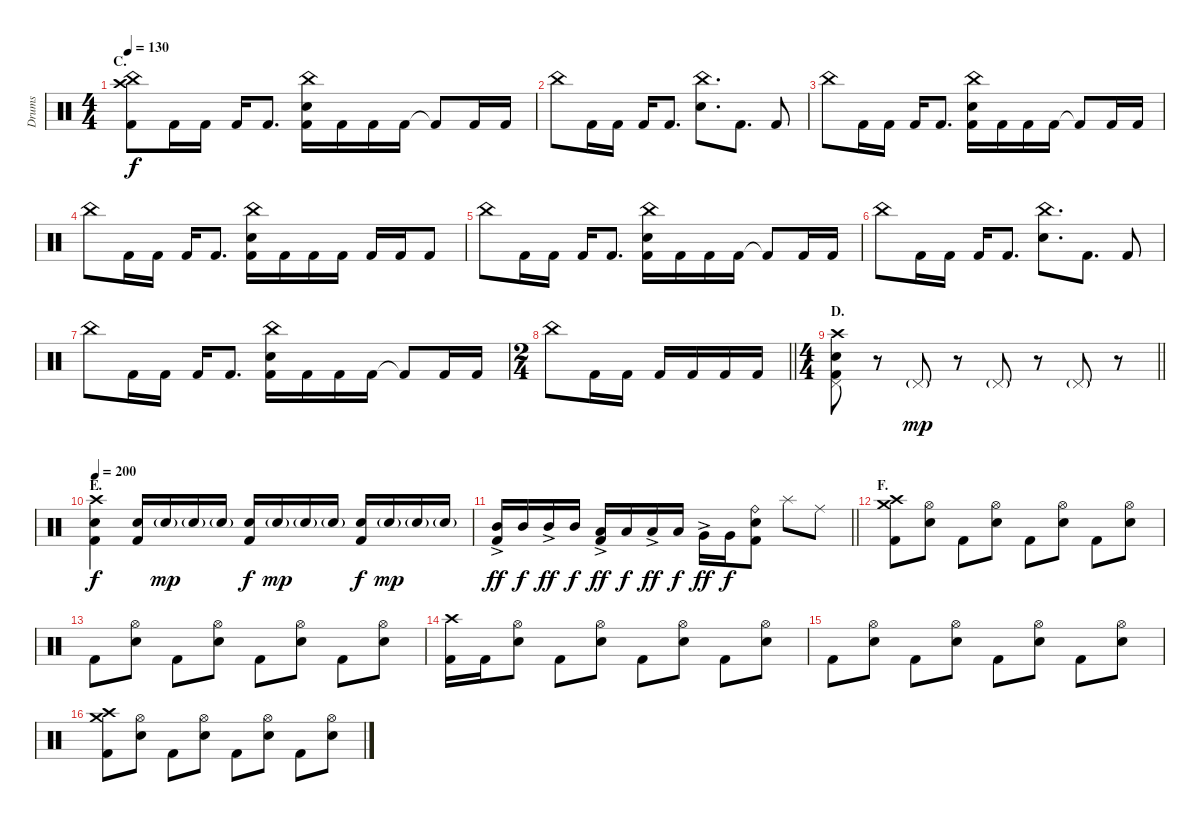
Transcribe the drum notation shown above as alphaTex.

\track ("Drums" "Drums") {instrument percussion}
\staff {score}
\articulation defaults
\ts (4 4)
\section ("" "C.")
\tempo 130
\clef neutral
\ks c
("China (hit)" "Crash high (hit)" "Kick (hit) 2").8{dy f} "Kick (hit) 2".16 "Kick (hit) 2".16 "Kick (hit) 2".16 "Kick (hit) 2".8{d} ("China (hit)" "Electric Snare (hit)" "Kick (hit) 2").16 "Kick (hit) 2".16 "Kick (hit) 2".16 "Kick (hit) 2".16 "Kick (hit) 2"{t}.8 "Kick (hit) 2".16 "Kick (hit) 2".16 |
"China (hit)".8 "Kick (hit) 2".16 "Kick (hit) 2".16 "Kick (hit) 2".16 "Kick (hit) 2".8{d} ("China (hit)" "Electric Snare (hit)").8{d} "Kick (hit) 2".8{d} "Kick (hit) 2".8 |
"China (hit)".8 "Kick (hit) 2".16 "Kick (hit) 2".16 "Kick (hit) 2".16 "Kick (hit) 2".8{d} ("China (hit)" "Electric Snare (hit)" "Kick (hit) 2").16 "Kick (hit) 2".16 "Kick (hit) 2".16 "Kick (hit) 2".16 "Kick (hit) 2"{t}.8 "Kick (hit) 2".16 "Kick (hit) 2".16 |
"China (hit)".8 "Kick (hit) 2".16 "Kick (hit) 2".16 "Kick (hit) 2".16 "Kick (hit) 2".8{d} ("China (hit)" "Electric Snare (hit)" "Kick (hit) 2").16 "Kick (hit) 2".16 "Kick (hit) 2".16 "Kick (hit) 2".16 "Kick (hit) 2".16 "Kick (hit) 2".16 "Kick (hit) 2".8 |
"China (hit)".8 "Kick (hit) 2".16 "Kick (hit) 2".16 "Kick (hit) 2".16 "Kick (hit) 2".8{d} ("China (hit)" "Electric Snare (hit)" "Kick (hit) 2").16 "Kick (hit) 2".16 "Kick (hit) 2".16 "Kick (hit) 2".16 "Kick (hit) 2"{t}.8 "Kick (hit) 2".16 "Kick (hit) 2".16 |
"China (hit)".8 "Kick (hit) 2".16 "Kick (hit) 2".16 "Kick (hit) 2".16 "Kick (hit) 2".8{d} ("China (hit)" "Electric Snare (hit)").8{d} "Kick (hit) 2".8{d} "Kick (hit) 2".8 |
"China (hit)".8 "Kick (hit) 2".16 "Kick (hit) 2".16 "Kick (hit) 2".16 "Kick (hit) 2".8{d} ("China (hit)" "Electric Snare (hit)" "Kick (hit) 2").16 "Kick (hit) 2".16 "Kick (hit) 2".16 "Kick (hit) 2".16 "Kick (hit) 2"{t}.8 "Kick (hit) 2".16 "Kick (hit) 2".16 |
\ts (2 4)
\barLineRight lightlight "China (hit)".8 "Kick (hit) 2".16 "Kick (hit) 2".16 "Kick (hit) 2".16 "Kick (hit) 2".16 "Kick (hit) 2".16 "Kick (hit) 2".16
|
\ts (4 4)
\section ("" "D.")
\barLineRight lightlight
("Crash high (hit)" "Pedal Hi-Hat (hit)" "Electric Snare (hit)" "Kick (hit) 2").8 r.8 "Pedal Hi-Hat (hit)"{g}.8{dy mp} r.8 "Pedal Hi-Hat (hit)"{g}.8 r.8 "Pedal Hi-Hat (hit)"{g}.8 r.8 |
\section ("" "E.")
\tempo 200
("Crash high (hit)" "Electric Snare (hit)" "Kick (hit) 2").4{dy f} ("Electric Snare (hit)" "Kick (hit) 2").16 "Electric Snare (hit)"{g}.16{dy mp} "Electric Snare (hit)"{g}.16 "Electric Snare (hit)"{g}.16 ("Electric Snare (hit)" "Kick (hit) 2").16{dy f} "Electric Snare (hit)"{g}.16{dy mp} "Electric Snare (hit)"{g}.16 "Electric Snare (hit)"{g}.16 ("Electric Snare (hit)" "Kick (hit) 2").16{dy f} "Electric Snare (hit)"{g}.16{dy mp} "Electric Snare (hit)"{g}.16 "Electric Snare (hit)"{g}.16 |
\barLineRight lightlight
("Mid Tom (hit)"{ac} "Kick (hit) 2").16{dy ff} "Mid Tom (hit)".16{dy f} "Mid Tom (hit)"{ac}.16{dy ff} "Mid Tom (hit)".16{dy f} ("Low Tom (hit)"{ac} "Kick (hit) 2").16{dy ff} "Low Tom (hit)".16{dy f} "Low Tom (hit)"{ac}.16{dy ff} "Low Tom (hit)".16{dy f} "Very Low Tom (hit)"{ac}.16{dy ff} "Very Low Tom (hit)".16{dy f} ("Ride (bell)" "Electric Snare (hit)" "Kick (hit) 2").8 "Splash (hit)".8 "Ride (middle)".8 |
\section ("" "F.")
("Crash medium (hit)" "Crash high (hit)" "Kick (hit) 2").8 ("Hi-Hat (open)" "Electric Snare (hit)").8 "Kick (hit) 2".8 ("Hi-Hat (open)" "Electric Snare (hit)").8 "Kick (hit) 2".8 ("Hi-Hat (open)" "Electric Snare (hit)").8 "Kick (hit) 2".8 ("Hi-Hat (open)" "Electric Snare (hit)").8 |
"Kick (hit) 2".8 ("Hi-Hat (open)" "Electric Snare (hit)").8 "Kick (hit) 2".8 ("Hi-Hat (open)" "Electric Snare (hit)").8 "Kick (hit) 2".8 ("Hi-Hat (open)" "Electric Snare (hit)").8 "Kick (hit) 2".8 ("Hi-Hat (open)" "Electric Snare (hit)").8 |
("Crash high (hit)" "Kick (hit) 2").16 "Kick (hit) 2".16 ("Hi-Hat (open)" "Electric Snare (hit)").8 "Kick (hit) 2".8 ("Hi-Hat (open)" "Electric Snare (hit)").8 "Kick (hit) 2".8 ("Hi-Hat (open)" "Electric Snare (hit)").8 "Kick (hit) 2".8 ("Hi-Hat (open)" "Electric Snare (hit)").8 |
"Kick (hit) 2".8 ("Hi-Hat (open)" "Electric Snare (hit)").8 "Kick (hit) 2".8 ("Hi-Hat (open)" "Electric Snare (hit)").8 "Kick (hit) 2".8 ("Hi-Hat (open)" "Electric Snare (hit)").8 "Kick (hit) 2".8 ("Hi-Hat (open)" "Electric Snare (hit)").8 |
("Crash medium (hit)" "Crash high (hit)" "Kick (hit) 2").8 ("Hi-Hat (open)" "Electric Snare (hit)").8 "Kick (hit) 2".8 ("Hi-Hat (open)" "Electric Snare (hit)").8 "Kick (hit) 2".8 ("Hi-Hat (open)" "Electric Snare (hit)").8 "Kick (hit) 2".8 ("Hi-Hat (open)" "Electric Snare (hit)").8
